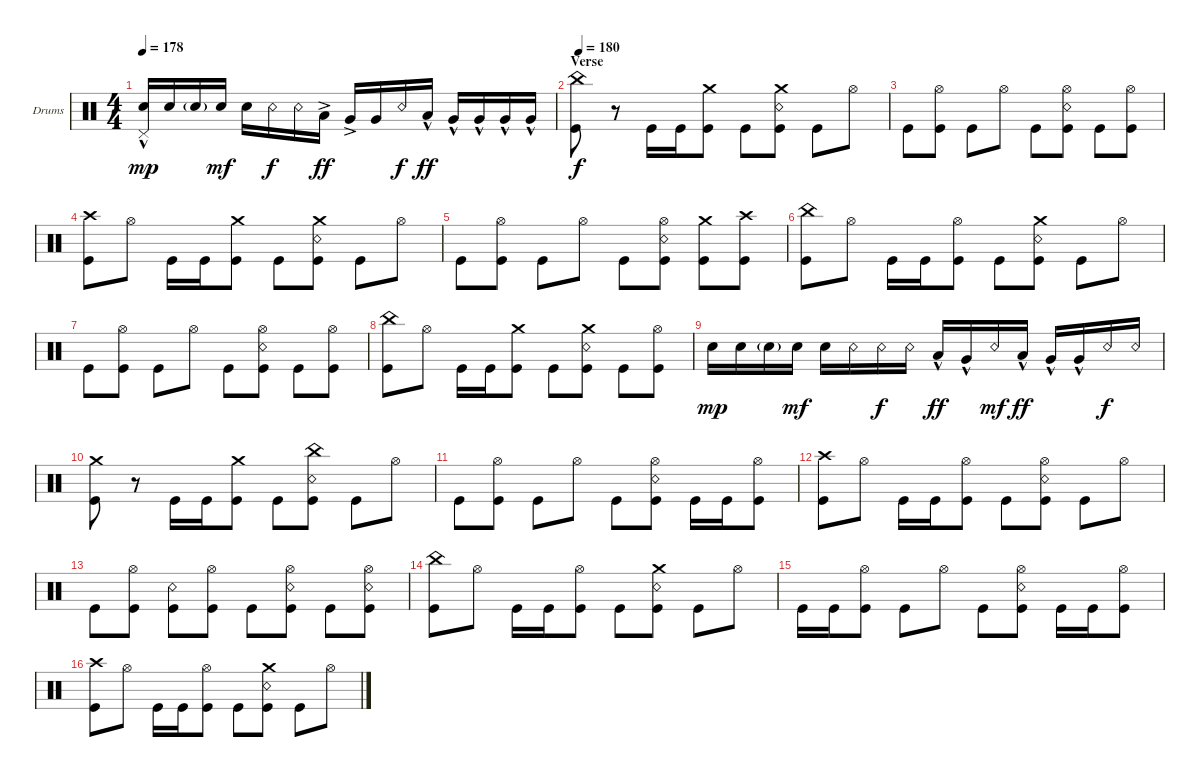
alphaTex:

\bracketExtendMode groupsimilarinstruments
\firstSystemTrackNameOrientation horizontal
\otherSystemsTrackNameOrientation horizontal
\track ("Drumkit" "Drums") {instrument percussion}
\staff {score}
\articulation defaults
\ts (4 4)
\tempo 178
\clef neutral
\ks c
("Snare (hit) 2" "Pedal Hi-Hat (hit)"{hac}).16{dy mp} "Snare (hit) 2".16 "Snare (hit) 2"{g}.16 "Snare (hit) 2".16{dy mf} "Snare (hit) 2".16 "Snare (rim shot)".16{dy f} "Snare (rim shot)".16 "Low Tom (hit)"{ac}.16{dy ff} "Very Low Tom (hit)"{ac}.16 "Very Low Tom (hit)".16 "Snare (rim shot)".16{dy f} "Low Tom (hit)"{hac}.16{dy ff} "Very Low Tom (hit)"{hac}.16 "Very Low Tom (hit)"{hac}.16 "Very Low Tom (hit)"{hac}.16 "Very Low Tom (hit)"{hac}.16 |
\section ("" "Verse")
\tempo 180
("Kick (hit)" "China (hit)").8{dy f} r.8 "Kick (hit)".16 "Kick (hit)".16 ("Kick (hit)" "Crash medium (hit)").8 "Kick (hit)".8 ("Kick (hit)" "Snare (rim shot)" "Crash medium (hit)").8 "Kick (hit)".8 "Hi-Hat (open)".8 |
"Kick (hit)".8 ("Kick (hit)" "Hi-Hat (open)").8 "Kick (hit)".8 "Hi-Hat (open)".8 "Kick (hit)".8 ("Kick (hit)" "Snare (rim shot)" "Hi-Hat (open)").8 "Kick (hit)".8 ("Kick (hit)" "Hi-Hat (open)").8 |
("Kick (hit)" "Crash high (hit)").8 "Hi-Hat (open)".8 "Kick (hit)".16 "Kick (hit)".16 ("Kick (hit)" "Crash medium (hit)").8 "Kick (hit)".8 ("Kick (hit)" "Snare (rim shot)" "Crash medium (hit)").8 "Kick (hit)".8 "Hi-Hat (open)".8 |
"Kick (hit)".8 ("Kick (hit)" "Hi-Hat (open)").8 "Kick (hit)".8 "Hi-Hat (open)".8 "Kick (hit)".8 ("Kick (hit)" "Snare (rim shot)" "Hi-Hat (open)").8 ("Kick (hit)" "Crash medium (hit)").8 ("Kick (hit)" "Crash high (hit)").8 |
("Kick (hit)" "China (hit)").8 "Hi-Hat (open)".8 "Kick (hit)".16 "Kick (hit)".16 ("Kick (hit)" "Hi-Hat (open)").8 "Kick (hit)".8 ("Kick (hit)" "Snare (rim shot)" "Crash medium (hit)").8 "Kick (hit)".8 "Hi-Hat (open)".8 |
"Kick (hit)".8 ("Kick (hit)" "Hi-Hat (open)").8 "Kick (hit)".8 "Hi-Hat (open)".8 "Kick (hit)".8 ("Kick (hit)" "Snare (rim shot)" "Hi-Hat (open)").8 "Kick (hit)".8 ("Kick (hit)" "Hi-Hat (open)").8 |
("Kick (hit)" "China (hit)").8 "Hi-Hat (open)".8 "Kick (hit)".16 "Kick (hit)".16 ("Kick (hit)" "Crash medium (hit)").8 "Kick (hit)".8 ("Kick (hit)" "Snare (rim shot)" "Crash medium (hit)").8 "Kick (hit)".8 ("Hi-Hat (open)" "Kick (hit)").8 |
"Snare (hit) 2".16{dy mp} "Snare (hit) 2".16 "Snare (hit) 2"{g}.16 "Snare (hit) 2".16{dy mf} "Snare (hit) 2".16 "Snare (rim shot)".16 "Snare (rim shot)".16{dy f} "Snare (rim shot)".16 "Low Tom (hit)"{hac}.16{dy ff} "Very Low Tom (hit)"{hac}.16 "Snare (rim shot)".16{dy mf} "Low Tom (hit)"{hac}.16{dy ff} "Very Low Tom (hit)"{hac}.16 "Very Low Tom (hit)"{hac}.16 "Snare (rim shot)".16{dy f} "Snare (rim shot)".16 |
("Kick (hit)" "Crash medium (hit)").8 r.8 "Kick (hit)".16 "Kick (hit)".16 ("Kick (hit)" "Crash medium (hit)").8 "Kick (hit)".8 ("Kick (hit)" "Snare (rim shot)" "China (hit)").8 "Kick (hit)".8 "Hi-Hat (open)".8 |
"Kick (hit)".8 ("Kick (hit)" "Hi-Hat (open)").8 "Kick (hit)".8 "Hi-Hat (open)".8 "Kick (hit)".8 ("Kick (hit)" "Snare (rim shot)" "Hi-Hat (open)").8 "Kick (hit)".16 "Kick (hit)".16 ("Kick (hit)" "Hi-Hat (open)").8 |
("Kick (hit)" "Crash high (hit)").8 "Hi-Hat (open)".8 "Kick (hit)".16 "Kick (hit)".16 ("Kick (hit)" "Hi-Hat (open)").8 "Kick (hit)".8 ("Kick (hit)" "Snare (rim shot)" "Hi-Hat (open)").8 "Kick (hit)".8 "Hi-Hat (open)".8 |
"Kick (hit)".8 ("Kick (hit)" "Hi-Hat (open)").8 ("Kick (hit)" "Snare (rim shot)").8 ("Kick (hit)" "Hi-Hat (open)").8 "Kick (hit)".8 ("Snare (rim shot)" "Kick (hit)" "Hi-Hat (open)").8 "Kick (hit)".8 ("Snare (rim shot)" "Kick (hit)" "Hi-Hat (open)").8 |
("Kick (hit)" "China (hit)").8 "Hi-Hat (open)".8 "Kick (hit)".16 "Kick (hit)".16 ("Kick (hit)" "Hi-Hat (open)").8 "Kick (hit)".8 ("Kick (hit)" "Snare (rim shot)" "Crash medium (hit)").8 "Kick (hit)".8 "Hi-Hat (open)".8 |
"Kick (hit)".16 "Kick (hit)".16 ("Kick (hit)" "Hi-Hat (open)").8 "Kick (hit)".8 "Hi-Hat (open)".8 "Kick (hit)".8 ("Kick (hit)" "Snare (rim shot)" "Hi-Hat (open)").8 "Kick (hit)".16 "Kick (hit)".16 ("Kick (hit)" "Hi-Hat (open)").8 |
("Kick (hit)" "Crash high (hit)").8 "Hi-Hat (open)".8 "Kick (hit)".16 "Kick (hit)".16 ("Kick (hit)" "Hi-Hat (open)").8 "Kick (hit)".8 ("Kick (hit)" "Snare (rim shot)" "Crash medium (hit)").8 "Kick (hit)".8 "Hi-Hat (open)".8
